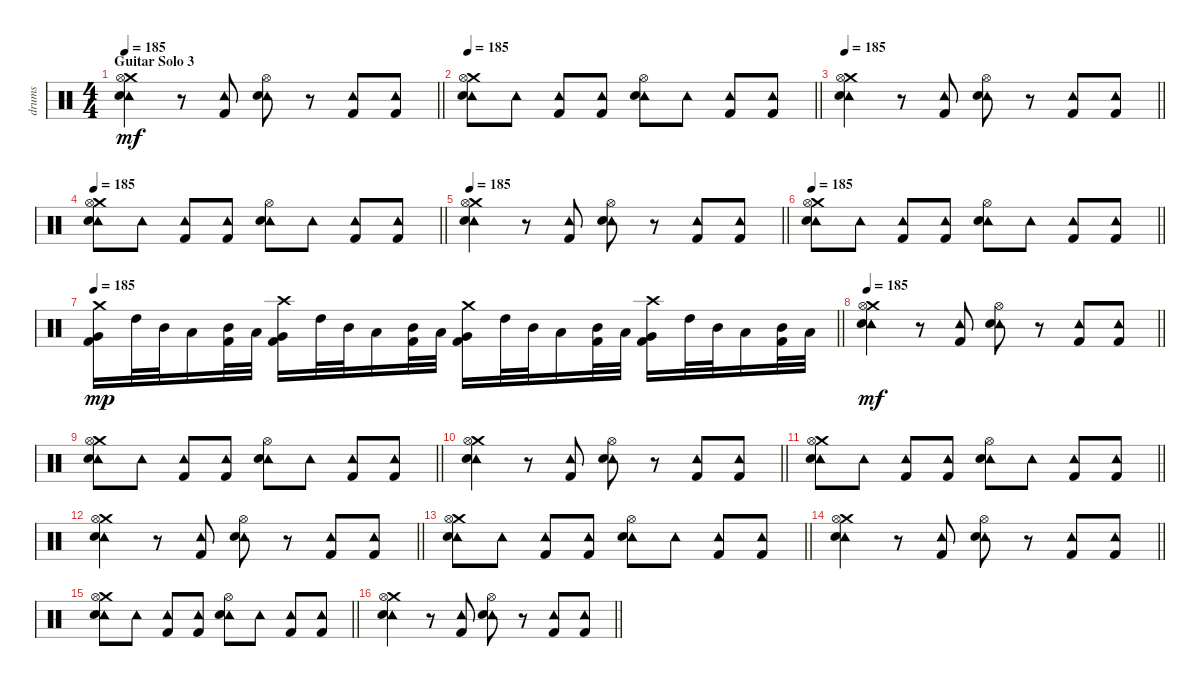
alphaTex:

\track ("drums" "drums") {instrument percussion}
\staff {score}
\articulation defaults
\ts (4 4)
\section ("" "Guitar Solo 3")
\tempo 185
\clef neutral
\barLineRight lightlight
\ks c
("Tambourine (hit)" "Crash medium (hit)" "Hi-Hat (open)" "Electric Snare (hit)").4{dy mf} r.8 ("Tambourine (hit)" "Kick (hit) 2").8 ("Tambourine (hit)" "Hi-Hat (open)" "Electric Snare (hit)").8 r.8 ("Tambourine (hit)" "Kick (hit) 2").8 ("Tambourine (hit)" "Kick (hit) 2").8 |
\tempo 185
\barLineRight lightlight
("Tambourine (hit)" "Crash medium (hit)" "Hi-Hat (open)" "Electric Snare (hit)").8 "Tambourine (hit)".8 ("Tambourine (hit)" "Kick (hit) 2").8 ("Tambourine (hit)" "Kick (hit) 2").8 ("Tambourine (hit)" "Hi-Hat (open)" "Electric Snare (hit)").8 "Tambourine (hit)".8 ("Tambourine (hit)" "Kick (hit) 2").8 ("Tambourine (hit)" "Kick (hit) 2").8 |
\tempo 185
\barLineRight lightlight
("Tambourine (hit)" "Crash medium (hit)" "Hi-Hat (open)" "Electric Snare (hit)").4 r.8 ("Tambourine (hit)" "Kick (hit) 2").8 ("Tambourine (hit)" "Hi-Hat (open)" "Electric Snare (hit)").8 r.8 ("Tambourine (hit)" "Kick (hit) 2").8 ("Tambourine (hit)" "Kick (hit) 2").8 |
\tempo 185
\barLineRight lightlight
("Tambourine (hit)" "Crash medium (hit)" "Hi-Hat (open)" "Electric Snare (hit)").8 "Tambourine (hit)".8 ("Tambourine (hit)" "Kick (hit) 2").8 ("Tambourine (hit)" "Kick (hit) 2").8 ("Tambourine (hit)" "Hi-Hat (open)" "Electric Snare (hit)").8 "Tambourine (hit)".8 ("Tambourine (hit)" "Kick (hit) 2").8 ("Tambourine (hit)" "Kick (hit) 2").8 |
\tempo 185
\barLineRight lightlight
("Tambourine (hit)" "Crash medium (hit)" "Hi-Hat (open)" "Electric Snare (hit)").4 r.8 ("Tambourine (hit)" "Kick (hit) 2").8 ("Tambourine (hit)" "Hi-Hat (open)" "Electric Snare (hit)").8 r.8 ("Tambourine (hit)" "Kick (hit) 2").8 ("Tambourine (hit)" "Kick (hit) 2").8 |
\tempo 185
\barLineRight lightlight
("Tambourine (hit)" "Crash medium (hit)" "Hi-Hat (open)" "Electric Snare (hit)").8 "Tambourine (hit)".8 ("Tambourine (hit)" "Kick (hit) 2").8 ("Tambourine (hit)" "Kick (hit) 2").8 ("Tambourine (hit)" "Hi-Hat (open)" "Electric Snare (hit)").8 "Tambourine (hit)".8 ("Tambourine (hit)" "Kick (hit) 2").8 ("Tambourine (hit)" "Kick (hit) 2").8 |
\tempo 185
\barLineRight lightlight
("Crash medium (hit)" "Very Low Tom (hit)" "Kick (hit) 2").16{dy mp} "High Tom (hit)".32 "Mid Tom (hit)".32 "Low Tom (hit)".16 ("Mid Tom (hit)" "Kick (hit) 2").32 "Low Tom (hit)".32 ("Crash high (hit)" "Very Low Tom (hit)" "Kick (hit) 2").16 "High Tom (hit)".32 "Mid Tom (hit)".32 "Low Tom (hit)".16 ("Mid Tom (hit)" "Kick (hit) 2").32 "Low Tom (hit)".32 ("Crash medium (hit)" "Very Low Tom (hit)" "Kick (hit) 2").16 "High Tom (hit)".32 "Mid Tom (hit)".32 "Low Tom (hit)".16 ("Mid Tom (hit)" "Kick (hit) 2").32 "Low Tom (hit)".32 ("Crash high (hit)" "Very Low Tom (hit)" "Kick (hit) 2").16 "High Tom (hit)".32 "Mid Tom (hit)".32 "Low Tom (hit)".16 ("Mid Tom (hit)" "Kick (hit) 2").32 "Low Tom (hit)".32 |
\tempo 185
\barLineRight lightlight
("Tambourine (hit)" "Crash medium (hit)" "Hi-Hat (open)" "Electric Snare (hit)").4{dy mf} r.8 ("Tambourine (hit)" "Kick (hit) 2").8 ("Tambourine (hit)" "Hi-Hat (open)" "Electric Snare (hit)").8 r.8 ("Tambourine (hit)" "Kick (hit) 2").8 ("Tambourine (hit)" "Kick (hit) 2").8 |
\barLineRight lightlight
("Tambourine (hit)" "Crash medium (hit)" "Hi-Hat (open)" "Electric Snare (hit)").8 "Tambourine (hit)".8 ("Tambourine (hit)" "Kick (hit) 2").8 ("Tambourine (hit)" "Kick (hit) 2").8 ("Tambourine (hit)" "Hi-Hat (open)" "Electric Snare (hit)").8 "Tambourine (hit)".8 ("Tambourine (hit)" "Kick (hit) 2").8 ("Tambourine (hit)" "Kick (hit) 2").8 |
\barLineRight lightlight
("Tambourine (hit)" "Crash medium (hit)" "Hi-Hat (open)" "Electric Snare (hit)").4 r.8 ("Tambourine (hit)" "Kick (hit) 2").8 ("Tambourine (hit)" "Hi-Hat (open)" "Electric Snare (hit)").8 r.8 ("Tambourine (hit)" "Kick (hit) 2").8 ("Tambourine (hit)" "Kick (hit) 2").8 |
\barLineRight lightlight
("Tambourine (hit)" "Crash medium (hit)" "Hi-Hat (open)" "Electric Snare (hit)").8 "Tambourine (hit)".8 ("Tambourine (hit)" "Kick (hit) 2").8 ("Tambourine (hit)" "Kick (hit) 2").8 ("Tambourine (hit)" "Hi-Hat (open)" "Electric Snare (hit)").8 "Tambourine (hit)".8 ("Tambourine (hit)" "Kick (hit) 2").8 ("Tambourine (hit)" "Kick (hit) 2").8 |
\barLineRight lightlight
("Tambourine (hit)" "Crash medium (hit)" "Hi-Hat (open)" "Electric Snare (hit)").4 r.8 ("Tambourine (hit)" "Kick (hit) 2").8 ("Tambourine (hit)" "Hi-Hat (open)" "Electric Snare (hit)").8 r.8 ("Tambourine (hit)" "Kick (hit) 2").8 ("Tambourine (hit)" "Kick (hit) 2").8 |
\barLineRight lightlight
("Tambourine (hit)" "Crash medium (hit)" "Hi-Hat (open)" "Electric Snare (hit)").8 "Tambourine (hit)".8 ("Tambourine (hit)" "Kick (hit) 2").8 ("Tambourine (hit)" "Kick (hit) 2").8 ("Tambourine (hit)" "Hi-Hat (open)" "Electric Snare (hit)").8 "Tambourine (hit)".8 ("Tambourine (hit)" "Kick (hit) 2").8 ("Tambourine (hit)" "Kick (hit) 2").8 |
\barLineRight lightlight
("Tambourine (hit)" "Crash medium (hit)" "Hi-Hat (open)" "Electric Snare (hit)").4 r.8 ("Tambourine (hit)" "Kick (hit) 2").8 ("Tambourine (hit)" "Hi-Hat (open)" "Electric Snare (hit)").8 r.8 ("Tambourine (hit)" "Kick (hit) 2").8 ("Tambourine (hit)" "Kick (hit) 2").8 |
\barLineRight lightlight
("Tambourine (hit)" "Crash medium (hit)" "Hi-Hat (open)" "Electric Snare (hit)").8 "Tambourine (hit)".8 ("Tambourine (hit)" "Kick (hit) 2").8 ("Tambourine (hit)" "Kick (hit) 2").8 ("Tambourine (hit)" "Hi-Hat (open)" "Electric Snare (hit)").8 "Tambourine (hit)".8 ("Tambourine (hit)" "Kick (hit) 2").8 ("Tambourine (hit)" "Kick (hit) 2").8 |
\barLineRight lightlight
("Tambourine (hit)" "Crash medium (hit)" "Hi-Hat (open)" "Electric Snare (hit)").4 r.8 ("Tambourine (hit)" "Kick (hit) 2").8 ("Tambourine (hit)" "Hi-Hat (open)" "Electric Snare (hit)").8 r.8 ("Tambourine (hit)" "Kick (hit) 2").8 ("Tambourine (hit)" "Kick (hit) 2").8
